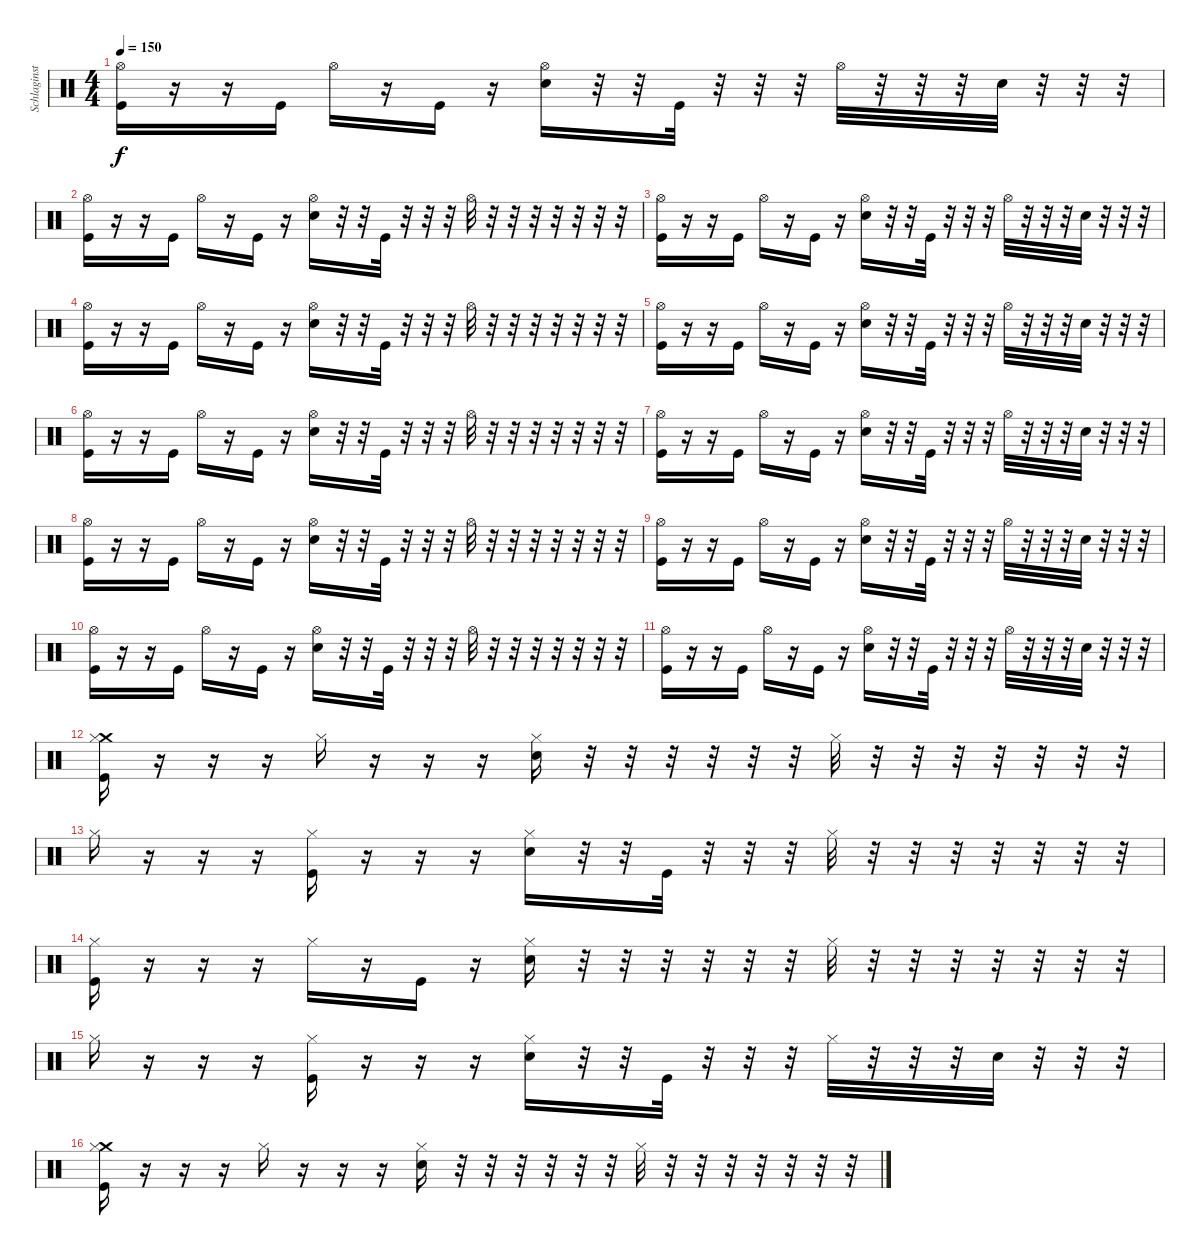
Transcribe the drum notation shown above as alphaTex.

\track ("Schlaginstrumente - Auswahl" "Schlaginst") {instrument percussion}
\staff {score}
\articulation defaults
\ts (4 4)
\tempo 150
\clef neutral
\ks c
("Kick (hit)" "Hi-Hat (open)").16{dy f} r.16 r.16 "Kick (hit)".16 "Hi-Hat (open)".16 r.16 "Kick (hit)".16 r.16 ("Electric Snare (hit)" "Hi-Hat (open)").16 r.32 r.32 "Kick (hit)".32 r.32 r.32 r.32 "Hi-Hat (open)".32 r.32 r.32 r.32 "Electric Snare (hit)".32 r.32 r.32 r.32 |
("Kick (hit)" "Hi-Hat (open)").16 r.16 r.16 "Kick (hit)".16 "Hi-Hat (open)".16 r.16 "Kick (hit)".16 r.16 ("Electric Snare (hit)" "Hi-Hat (open)").16 r.32 r.32 "Kick (hit)".32 r.32 r.32 r.32 "Hi-Hat (open)".32 r.32 r.32 r.32 r.32 r.32 r.32 r.32 |
("Kick (hit)" "Hi-Hat (open)").16 r.16 r.16 "Kick (hit)".16 "Hi-Hat (open)".16 r.16 "Kick (hit)".16 r.16 ("Electric Snare (hit)" "Hi-Hat (open)").16 r.32 r.32 "Kick (hit)".32 r.32 r.32 r.32 "Hi-Hat (open)".32 r.32 r.32 r.32 "Electric Snare (hit)".32 r.32 r.32 r.32 |
("Kick (hit)" "Hi-Hat (open)").16 r.16 r.16 "Kick (hit)".16 "Hi-Hat (open)".16 r.16 "Kick (hit)".16 r.16 ("Electric Snare (hit)" "Hi-Hat (open)").16 r.32 r.32 "Kick (hit)".32 r.32 r.32 r.32 "Hi-Hat (open)".32 r.32 r.32 r.32 r.32 r.32 r.32 r.32 |
("Kick (hit)" "Hi-Hat (open)").16 r.16 r.16 "Kick (hit)".16 "Hi-Hat (open)".16 r.16 "Kick (hit)".16 r.16 ("Electric Snare (hit)" "Hi-Hat (open)").16 r.32 r.32 "Kick (hit)".32 r.32 r.32 r.32 "Hi-Hat (open)".32 r.32 r.32 r.32 "Electric Snare (hit)".32 r.32 r.32 r.32 |
("Kick (hit)" "Hi-Hat (open)").16 r.16 r.16 "Kick (hit)".16 "Hi-Hat (open)".16 r.16 "Kick (hit)".16 r.16 ("Electric Snare (hit)" "Hi-Hat (open)").16 r.32 r.32 "Kick (hit)".32 r.32 r.32 r.32 "Hi-Hat (open)".32 r.32 r.32 r.32 r.32 r.32 r.32 r.32 |
("Kick (hit)" "Hi-Hat (open)").16 r.16 r.16 "Kick (hit)".16 "Hi-Hat (open)".16 r.16 "Kick (hit)".16 r.16 ("Electric Snare (hit)" "Hi-Hat (open)").16 r.32 r.32 "Kick (hit)".32 r.32 r.32 r.32 "Hi-Hat (open)".32 r.32 r.32 r.32 "Electric Snare (hit)".32 r.32 r.32 r.32 |
("Kick (hit)" "Hi-Hat (open)").16 r.16 r.16 "Kick (hit)".16 "Hi-Hat (open)".16 r.16 "Kick (hit)".16 r.16 ("Electric Snare (hit)" "Hi-Hat (open)").16 r.32 r.32 "Kick (hit)".32 r.32 r.32 r.32 "Hi-Hat (open)".32 r.32 r.32 r.32 r.32 r.32 r.32 r.32 |
("Kick (hit)" "Hi-Hat (open)").16 r.16 r.16 "Kick (hit)".16 "Hi-Hat (open)".16 r.16 "Kick (hit)".16 r.16 ("Electric Snare (hit)" "Hi-Hat (open)").16 r.32 r.32 "Kick (hit)".32 r.32 r.32 r.32 "Hi-Hat (open)".32 r.32 r.32 r.32 "Electric Snare (hit)".32 r.32 r.32 r.32 |
("Kick (hit)" "Hi-Hat (open)").16 r.16 r.16 "Kick (hit)".16 "Hi-Hat (open)".16 r.16 "Kick (hit)".16 r.16 ("Electric Snare (hit)" "Hi-Hat (open)").16 r.32 r.32 "Kick (hit)".32 r.32 r.32 r.32 "Hi-Hat (open)".32 r.32 r.32 r.32 r.32 r.32 r.32 r.32 |
("Kick (hit)" "Hi-Hat (open)").16 r.16 r.16 "Kick (hit)".16 "Hi-Hat (open)".16 r.16 "Kick (hit)".16 r.16 ("Electric Snare (hit)" "Hi-Hat (open)").16 r.32 r.32 "Kick (hit)".32 r.32 r.32 r.32 "Hi-Hat (open)".32 r.32 r.32 r.32 "Electric Snare (hit)".32 r.32 r.32 r.32 |
("Kick (hit)" "Crash medium (hit)" "Hi-Hat (closed)").16 r.16 r.16 r.16 "Hi-Hat (closed)".16 r.16 r.16 r.16 ("Electric Snare (hit)" "Hi-Hat (closed)").16 r.32 r.32 r.32 r.32 r.32 r.32 "Hi-Hat (closed)".32 r.32 r.32 r.32 r.32 r.32 r.32 r.32 |
"Hi-Hat (closed)".16 r.16 r.16 r.16 ("Kick (hit)" "Hi-Hat (closed)").16 r.16 r.16 r.16 ("Electric Snare (hit)" "Hi-Hat (closed)").16 r.32 r.32 "Kick (hit)".32 r.32 r.32 r.32 "Hi-Hat (closed)".32 r.32 r.32 r.32 r.32 r.32 r.32 r.32 |
("Kick (hit)" "Hi-Hat (closed)").16 r.16 r.16 r.16 "Hi-Hat (closed)".16 r.16 "Kick (hit)".16 r.16 ("Electric Snare (hit)" "Hi-Hat (closed)").16 r.32 r.32 r.32 r.32 r.32 r.32 "Hi-Hat (closed)".32 r.32 r.32 r.32 r.32 r.32 r.32 r.32 |
"Hi-Hat (closed)".16 r.16 r.16 r.16 ("Kick (hit)" "Hi-Hat (closed)").16 r.16 r.16 r.16 ("Electric Snare (hit)" "Hi-Hat (closed)").16 r.32 r.32 "Kick (hit)".32 r.32 r.32 r.32 "Hi-Hat (closed)".32 r.32 r.32 r.32 "Electric Snare (hit)".32 r.32 r.32 r.32 |
("Kick (hit)" "Crash medium (hit)" "Hi-Hat (closed)").16 r.16 r.16 r.16 "Hi-Hat (closed)".16 r.16 r.16 r.16 ("Electric Snare (hit)" "Hi-Hat (closed)").16 r.32 r.32 r.32 r.32 r.32 r.32 "Hi-Hat (closed)".32 r.32 r.32 r.32 r.32 r.32 r.32 r.32
